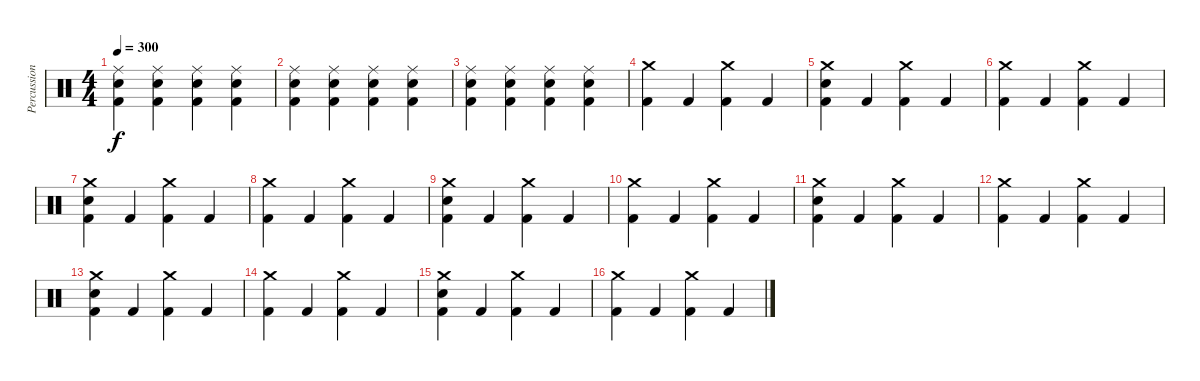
\track ("Percussion" "Percussion") {instrument percussion}
\staff {score}
\articulation defaults
\ts (4 4)
\tempo 300
\clef neutral
\ks c
("Ride (middle)" "Snare (hit) 2" "Kick (hit) 2").4{dy f} ("Ride (middle)" "Snare (hit) 2" "Kick (hit) 2").4 ("Ride (middle)" "Snare (hit) 2" "Kick (hit) 2").4 ("Ride (middle)" "Snare (hit) 2" "Kick (hit) 2").4 |
("Ride (middle)" "Snare (hit) 2" "Kick (hit) 2").4 ("Ride (middle)" "Snare (hit) 2" "Kick (hit) 2").4 ("Ride (middle)" "Snare (hit) 2" "Kick (hit) 2").4 ("Ride (middle)" "Snare (hit) 2" "Kick (hit) 2").4 |
("Ride (middle)" "Snare (hit) 2" "Kick (hit) 2").4 ("Ride (middle)" "Snare (hit) 2" "Kick (hit) 2").4 ("Ride (middle)" "Snare (hit) 2" "Kick (hit) 2").4 ("Ride (middle)" "Snare (hit) 2" "Kick (hit) 2").4 |
("Kick (hit) 2" "Crash medium (hit)").4 "Kick (hit) 2".4 ("Kick (hit) 2" "Crash medium (hit)").4 "Kick (hit) 2".4 |
("Snare (hit) 2" "Kick (hit) 2" "Crash medium (hit)").4 "Kick (hit) 2".4 ("Kick (hit) 2" "Crash medium (hit)").4 "Kick (hit) 2".4 |
("Kick (hit) 2" "Crash medium (hit)").4 "Kick (hit) 2".4 ("Kick (hit) 2" "Crash medium (hit)").4 "Kick (hit) 2".4 |
("Snare (hit) 2" "Kick (hit) 2" "Crash medium (hit)").4 "Kick (hit) 2".4 ("Kick (hit) 2" "Crash medium (hit)").4 "Kick (hit) 2".4 |
("Kick (hit) 2" "Crash medium (hit)").4 "Kick (hit) 2".4 ("Kick (hit) 2" "Crash medium (hit)").4 "Kick (hit) 2".4 |
("Snare (hit) 2" "Kick (hit) 2" "Crash medium (hit)").4 "Kick (hit) 2".4 ("Kick (hit) 2" "Crash medium (hit)").4 "Kick (hit) 2".4 |
("Kick (hit) 2" "Crash medium (hit)").4 "Kick (hit) 2".4 ("Kick (hit) 2" "Crash medium (hit)").4 "Kick (hit) 2".4 |
("Snare (hit) 2" "Kick (hit) 2" "Crash medium (hit)").4 "Kick (hit) 2".4 ("Kick (hit) 2" "Crash medium (hit)").4 "Kick (hit) 2".4 |
("Kick (hit) 2" "Crash medium (hit)").4 "Kick (hit) 2".4 ("Kick (hit) 2" "Crash medium (hit)").4 "Kick (hit) 2".4 |
("Snare (hit) 2" "Kick (hit) 2" "Crash medium (hit)").4 "Kick (hit) 2".4 ("Kick (hit) 2" "Crash medium (hit)").4 "Kick (hit) 2".4 |
("Kick (hit) 2" "Crash medium (hit)").4 "Kick (hit) 2".4 ("Kick (hit) 2" "Crash medium (hit)").4 "Kick (hit) 2".4 |
("Snare (hit) 2" "Kick (hit) 2" "Crash medium (hit)").4 "Kick (hit) 2".4 ("Kick (hit) 2" "Crash medium (hit)").4 "Kick (hit) 2".4 |
("Kick (hit) 2" "Crash medium (hit)").4 "Kick (hit) 2".4 ("Kick (hit) 2" "Crash medium (hit)").4 "Kick (hit) 2".4
